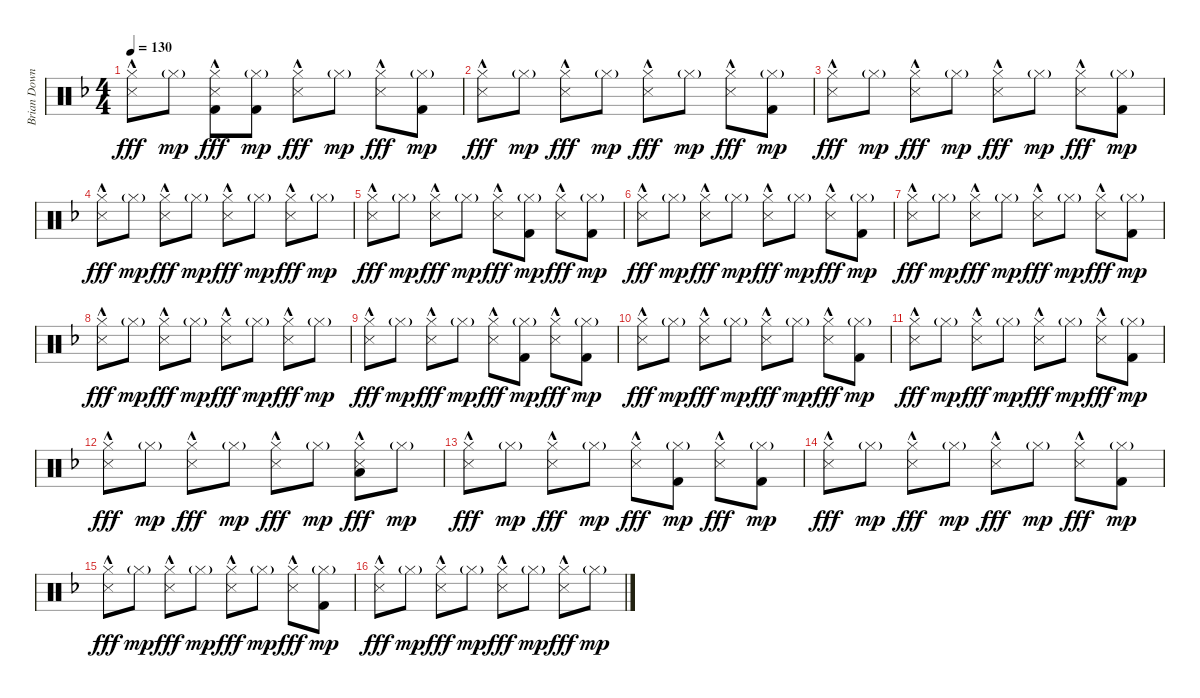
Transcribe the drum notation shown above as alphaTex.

\track ("Brian Downey" "Brian Down") {instrument percussion}
\staff {score}
\articulation defaults
\ts (4 4)
\tempo 130
\clef neutral
\ks dminor
("Hi-Hat (closed)" "Metronome (hit)"{hac}).8{dy fff} "Hi-Hat (closed)"{g}.8{dy mp} ("Hi-Hat (closed)" "Metronome (hit)"{hac} "Kick (hit) 2").8{dy fff} ("Hi-Hat (closed)"{g} "Kick (hit) 2").8{dy mp} ("Hi-Hat (closed)" "Metronome (hit)"{hac}).8{dy fff} "Hi-Hat (closed)"{g}.8{dy mp} ("Hi-Hat (closed)" "Metronome (hit)"{hac}).8{dy fff} ("Hi-Hat (closed)"{g} "Kick (hit) 2").8{dy mp} |
("Hi-Hat (closed)" "Metronome (hit)"{hac}).8{dy fff} "Hi-Hat (closed)"{g}.8{dy mp} ("Hi-Hat (closed)" "Metronome (hit)"{hac}).8{dy fff} "Hi-Hat (closed)"{g}.8{dy mp} ("Hi-Hat (closed)" "Metronome (hit)"{hac}).8{dy fff} "Hi-Hat (closed)"{g}.8{dy mp} ("Hi-Hat (closed)" "Metronome (hit)"{hac}).8{dy fff} ("Hi-Hat (closed)"{g} "Kick (hit) 2").8{dy mp} |
("Hi-Hat (closed)" "Metronome (hit)"{hac}).8{dy fff} "Hi-Hat (closed)"{g}.8{dy mp} ("Hi-Hat (closed)" "Metronome (hit)"{hac}).8{dy fff} "Hi-Hat (closed)"{g}.8{dy mp} ("Hi-Hat (closed)" "Metronome (hit)"{hac}).8{dy fff} "Hi-Hat (closed)"{g}.8{dy mp} ("Hi-Hat (closed)" "Metronome (hit)"{hac}).8{dy fff} ("Hi-Hat (closed)"{g} "Kick (hit) 2").8{dy mp} |
("Hi-Hat (closed)" "Metronome (hit)"{hac}).8{dy fff} "Hi-Hat (closed)"{g}.8{dy mp} ("Hi-Hat (closed)" "Metronome (hit)"{hac}).8{dy fff} "Hi-Hat (closed)"{g}.8{dy mp} ("Hi-Hat (closed)" "Metronome (hit)"{hac}).8{dy fff} "Hi-Hat (closed)"{g}.8{dy mp} ("Hi-Hat (closed)" "Metronome (hit)"{hac}).8{dy fff} "Hi-Hat (closed)"{g}.8{dy mp} |
("Hi-Hat (closed)" "Metronome (hit)"{hac}).8{dy fff} "Hi-Hat (closed)"{g}.8{dy mp} ("Hi-Hat (closed)" "Metronome (hit)"{hac}).8{dy fff} "Hi-Hat (closed)"{g}.8{dy mp} ("Hi-Hat (closed)" "Metronome (hit)"{hac}).8{dy fff} ("Hi-Hat (closed)"{g} "Kick (hit) 2").8{dy mp} ("Hi-Hat (closed)" "Metronome (hit)"{hac}).8{dy fff} ("Hi-Hat (closed)"{g} "Kick (hit) 2").8{dy mp} |
("Hi-Hat (closed)" "Metronome (hit)"{hac}).8{dy fff} "Hi-Hat (closed)"{g}.8{dy mp} ("Hi-Hat (closed)" "Metronome (hit)"{hac}).8{dy fff} "Hi-Hat (closed)"{g}.8{dy mp} ("Hi-Hat (closed)" "Metronome (hit)"{hac}).8{dy fff} "Hi-Hat (closed)"{g}.8{dy mp} ("Hi-Hat (closed)" "Metronome (hit)"{hac}).8{dy fff} ("Hi-Hat (closed)"{g} "Kick (hit) 2").8{dy mp} |
("Hi-Hat (closed)" "Metronome (hit)"{hac}).8{dy fff} "Hi-Hat (closed)"{g}.8{dy mp} ("Hi-Hat (closed)" "Metronome (hit)"{hac}).8{dy fff} "Hi-Hat (closed)"{g}.8{dy mp} ("Hi-Hat (closed)" "Metronome (hit)"{hac}).8{dy fff} "Hi-Hat (closed)"{g}.8{dy mp} ("Hi-Hat (closed)" "Metronome (hit)"{hac}).8{dy fff} ("Hi-Hat (closed)"{g} "Kick (hit) 2").8{dy mp} |
("Hi-Hat (closed)" "Metronome (hit)"{hac}).8{dy fff} "Hi-Hat (closed)"{g}.8{dy mp} ("Hi-Hat (closed)" "Metronome (hit)"{hac}).8{dy fff} "Hi-Hat (closed)"{g}.8{dy mp} ("Hi-Hat (closed)" "Metronome (hit)"{hac}).8{dy fff} "Hi-Hat (closed)"{g}.8{dy mp} ("Hi-Hat (closed)" "Metronome (hit)"{hac}).8{dy fff} "Hi-Hat (closed)"{g}.8{dy mp} |
("Hi-Hat (closed)" "Metronome (hit)"{hac}).8{dy fff} "Hi-Hat (closed)"{g}.8{dy mp} ("Hi-Hat (closed)" "Metronome (hit)"{hac}).8{dy fff} "Hi-Hat (closed)"{g}.8{dy mp} ("Hi-Hat (closed)" "Metronome (hit)"{hac}).8{dy fff} ("Hi-Hat (closed)"{g} "Kick (hit) 2").8{dy mp} ("Hi-Hat (closed)" "Metronome (hit)"{hac}).8{dy fff} ("Hi-Hat (closed)"{g} "Kick (hit) 2").8{dy mp} |
("Hi-Hat (closed)" "Metronome (hit)"{hac}).8{dy fff} "Hi-Hat (closed)"{g}.8{dy mp} ("Hi-Hat (closed)" "Metronome (hit)"{hac}).8{dy fff} "Hi-Hat (closed)"{g}.8{dy mp} ("Hi-Hat (closed)" "Metronome (hit)"{hac}).8{dy fff} "Hi-Hat (closed)"{g}.8{dy mp} ("Hi-Hat (closed)" "Metronome (hit)"{hac}).8{dy fff} ("Hi-Hat (closed)"{g} "Kick (hit) 2").8{dy mp} |
("Hi-Hat (closed)" "Metronome (hit)"{hac}).8{dy fff} "Hi-Hat (closed)"{g}.8{dy mp} ("Hi-Hat (closed)" "Metronome (hit)"{hac}).8{dy fff} "Hi-Hat (closed)"{g}.8{dy mp} ("Hi-Hat (closed)" "Metronome (hit)"{hac}).8{dy fff} "Hi-Hat (closed)"{g}.8{dy mp} ("Hi-Hat (closed)" "Metronome (hit)"{hac}).8{dy fff} ("Hi-Hat (closed)"{g} "Kick (hit) 2").8{dy mp} |
("Hi-Hat (closed)" "Metronome (hit)"{hac}).8{dy fff} "Hi-Hat (closed)"{g}.8{dy mp} ("Hi-Hat (closed)" "Metronome (hit)"{hac}).8{dy fff} "Hi-Hat (closed)"{g}.8{dy mp} ("Hi-Hat (closed)" "Metronome (hit)"{hac}).8{dy fff} "Hi-Hat (closed)"{g}.8{dy mp} ("Hi-Hat (closed)" "Low Tom (hit)" "Metronome (hit)"{hac}).8{dy fff} "Hi-Hat (closed)"{g}.8{dy mp} |
("Hi-Hat (closed)" "Metronome (hit)"{hac}).8{dy fff} "Hi-Hat (closed)"{g}.8{dy mp} ("Hi-Hat (closed)" "Metronome (hit)"{hac}).8{dy fff} "Hi-Hat (closed)"{g}.8{dy mp} ("Hi-Hat (closed)" "Metronome (hit)"{hac}).8{dy fff} ("Hi-Hat (closed)"{g} "Kick (hit) 2").8{dy mp} ("Hi-Hat (closed)" "Metronome (hit)"{hac}).8{dy fff} ("Hi-Hat (closed)"{g} "Kick (hit) 2").8{dy mp} |
("Hi-Hat (closed)" "Metronome (hit)"{hac}).8{dy fff} "Hi-Hat (closed)"{g}.8{dy mp} ("Hi-Hat (closed)" "Metronome (hit)"{hac}).8{dy fff} "Hi-Hat (closed)"{g}.8{dy mp} ("Hi-Hat (closed)" "Metronome (hit)"{hac}).8{dy fff} "Hi-Hat (closed)"{g}.8{dy mp} ("Hi-Hat (closed)" "Metronome (hit)"{hac}).8{dy fff} ("Hi-Hat (closed)"{g} "Kick (hit) 2").8{dy mp} |
("Hi-Hat (closed)" "Metronome (hit)"{hac}).8{dy fff} "Hi-Hat (closed)"{g}.8{dy mp} ("Hi-Hat (closed)" "Metronome (hit)"{hac}).8{dy fff} "Hi-Hat (closed)"{g}.8{dy mp} ("Hi-Hat (closed)" "Metronome (hit)"{hac}).8{dy fff} "Hi-Hat (closed)"{g}.8{dy mp} ("Hi-Hat (closed)" "Metronome (hit)"{hac}).8{dy fff} ("Hi-Hat (closed)"{g} "Kick (hit) 2").8{dy mp} |
("Hi-Hat (closed)" "Metronome (hit)"{hac}).8{dy fff} "Hi-Hat (closed)"{g}.8{dy mp} ("Hi-Hat (closed)" "Metronome (hit)"{hac}).8{dy fff} "Hi-Hat (closed)"{g}.8{dy mp} ("Hi-Hat (closed)" "Metronome (hit)"{hac}).8{dy fff} "Hi-Hat (closed)"{g}.8{dy mp} ("Hi-Hat (closed)" "Metronome (hit)"{hac}).8{dy fff} "Hi-Hat (closed)"{g}.8{dy mp}
